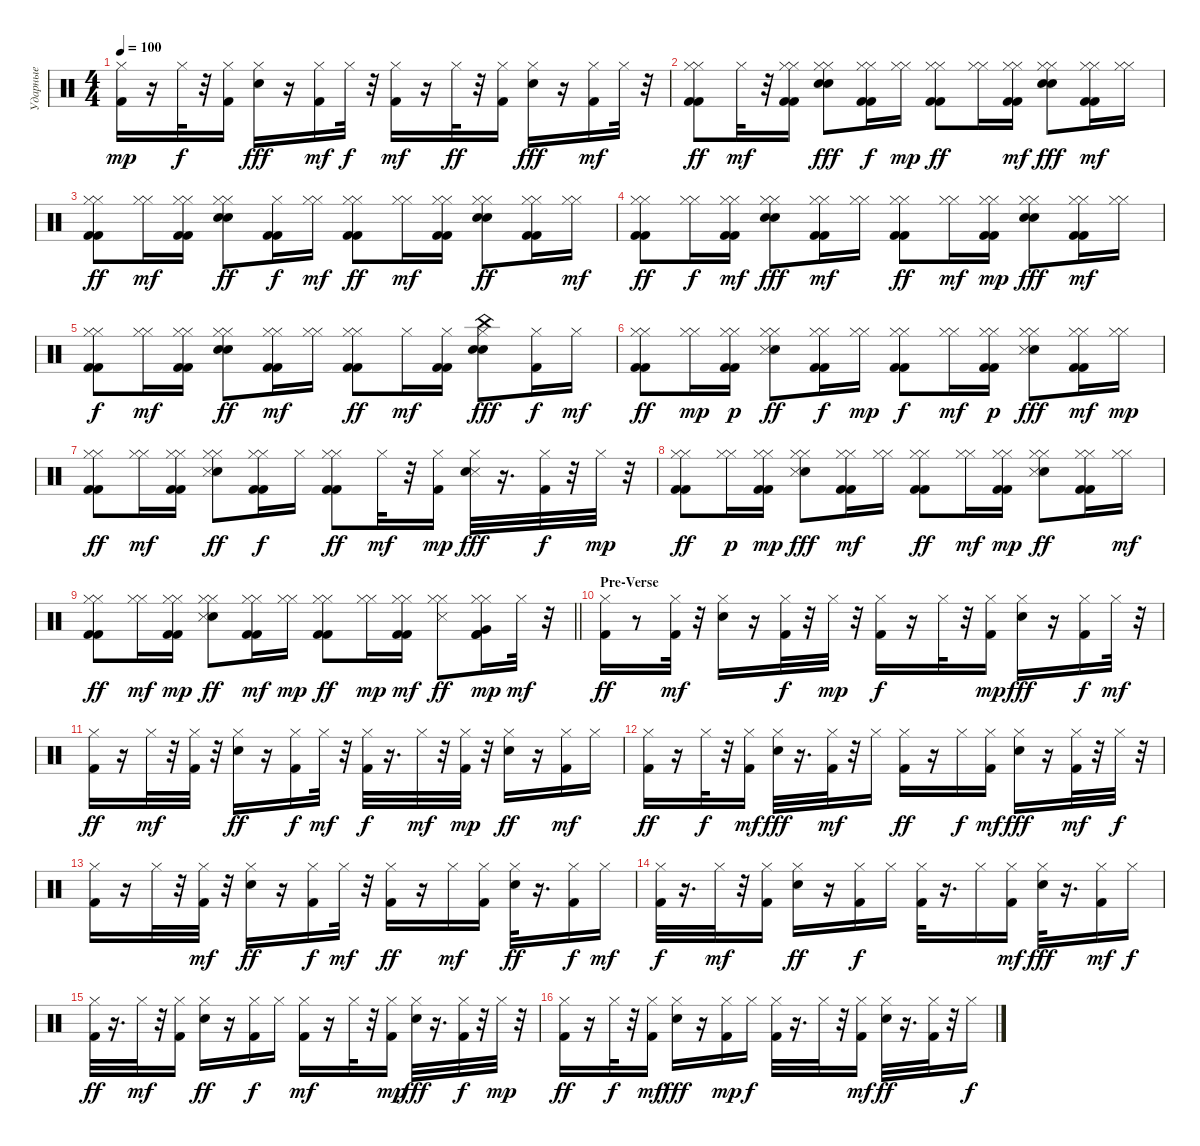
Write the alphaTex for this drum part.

\track ("Ударные" "Ударные") {instrument percussion}
\staff {score}
\articulation defaults
\ts (4 4)
\tempo 100
\clef neutral
\ks c
("Kick (hit) 2" "Hi-Hat (closed)").16{dy mp} r.16 "Hi-Hat (closed)".32{dy f} r.32 ("Kick (hit) 2" "Hi-Hat (closed)").16 ("Hi-Hat (closed)" "Snare (hit) 2").16{dy fff} r.16 ("Kick (hit) 2" "Hi-Hat (closed)").16{dy mf} "Hi-Hat (closed)".32{dy f} r.32 ("Hi-Hat (closed)" "Kick (hit) 2").16{dy mf} r.16 "Hi-Hat (closed)".32{dy ff} r.32 ("Kick (hit) 2" "Hi-Hat (closed)").16 ("Hi-Hat (closed)" "Snare (hit) 2").16{dy fff} r.16 ("Kick (hit) 2" "Hi-Hat (closed)").16{dy mf} "Hi-Hat (closed)".32 r.32 |
("Kick (hit) 2" "Hi-Hat (closed)" "Hi-Hat (closed)" "Kick (hit) 2").8{dy ff} "Hi-Hat (closed)".32{dy mf} r.32 ("Hi-Hat (closed)" "Kick (hit) 2" "Kick (hit) 2" "Hi-Hat (closed)").16 ("Snare (hit) 2" "Hi-Hat (closed)" "Hi-Hat (closed)" "Snare (hit) 2").8{dy fff} ("Kick (hit) 2" "Hi-Hat (closed)" "Kick (hit) 2" "Hi-Hat (closed)").16{dy f} ("Hi-Hat (closed)" "Hi-Hat (closed)").16{dy mp} ("Kick (hit) 2" "Hi-Hat (closed)" "Kick (hit) 2" "Hi-Hat (closed)").8{dy ff} ("Hi-Hat (closed)" "Hi-Hat (closed)").16 ("Kick (hit) 2" "Hi-Hat (closed)" "Hi-Hat (closed)" "Kick (hit) 2").16{dy mf} ("Hi-Hat (closed)" "Hi-Hat (closed)" "Snare (hit) 2" "Snare (hit) 2").8{dy fff} ("Kick (hit) 2" "Hi-Hat (closed)" "Kick (hit) 2" "Hi-Hat (closed)").16{dy mf} ("Hi-Hat (closed)" "Hi-Hat (closed)").16 |
("Kick (hit) 2" "Hi-Hat (closed)" "Kick (hit) 2" "Hi-Hat (closed)").8{dy ff} ("Hi-Hat (closed)" "Hi-Hat (closed)").16{dy mf} ("Kick (hit) 2" "Hi-Hat (closed)" "Hi-Hat (closed)" "Kick (hit) 2").16 ("Hi-Hat (closed)" "Snare (hit) 2" "Snare (hit) 2" "Hi-Hat (closed)").8{dy ff} ("Kick (hit) 2" "Hi-Hat (closed)" "Kick (hit) 2").16{dy f} ("Hi-Hat (closed)" "Hi-Hat (closed)").16{dy mf} ("Kick (hit) 2" "Hi-Hat (closed)" "Kick (hit) 2" "Hi-Hat (closed)").8{dy ff} ("Hi-Hat (closed)" "Hi-Hat (closed)").16{dy mf} ("Kick (hit) 2" "Kick (hit) 2" "Hi-Hat (closed)" "Hi-Hat (closed)").16 ("Hi-Hat (closed)" "Hi-Hat (closed)" "Snare (hit) 2" "Snare (hit) 2").8{dy ff} ("Hi-Hat (closed)" "Kick (hit) 2" "Kick (hit) 2" "Hi-Hat (closed)").16 ("Hi-Hat (closed)" "Hi-Hat (closed)").16{dy mf} |
("Hi-Hat (closed)" "Kick (hit) 2" "Kick (hit) 2" "Hi-Hat (closed)").8{dy ff} ("Hi-Hat (closed)" "Hi-Hat (closed)").16{dy f} ("Kick (hit) 2" "Hi-Hat (closed)" "Hi-Hat (closed)" "Kick (hit) 2").16{dy mf} ("Hi-Hat (closed)" "Hi-Hat (closed)" "Snare (hit) 2" "Snare (hit) 2").8{dy fff} ("Kick (hit) 2" "Hi-Hat (closed)" "Kick (hit) 2" "Hi-Hat (closed)").16{dy mf} ("Hi-Hat (closed)" "Hi-Hat (closed)").16 ("Hi-Hat (closed)" "Kick (hit) 2" "Kick (hit) 2" "Hi-Hat (closed)").8{dy ff} ("Hi-Hat (closed)" "Hi-Hat (closed)").16{dy mf} ("Kick (hit) 2" "Hi-Hat (closed)" "Kick (hit) 2" "Hi-Hat (closed)").16{dy mp} ("Hi-Hat (closed)" "Hi-Hat (closed)" "Snare (hit) 2" "Snare (hit) 2").8{dy fff} ("Kick (hit) 2" "Hi-Hat (closed)" "Kick (hit) 2" "Hi-Hat (closed)").16{dy mf} ("Hi-Hat (closed)" "Hi-Hat (closed)").16 |
("Hi-Hat (closed)" "Kick (hit) 2" "Kick (hit) 2" "Hi-Hat (closed)").8{dy f} ("Hi-Hat (closed)" "Hi-Hat (closed)").16{dy mf} ("Kick (hit) 2" "Hi-Hat (closed)" "Kick (hit) 2" "Hi-Hat (closed)").16 ("Hi-Hat (closed)" "Snare (hit) 2" "Hi-Hat (closed)" "Snare (hit) 2").8{dy ff} ("Kick (hit) 2" "Hi-Hat (closed)" "Kick (hit) 2" "Hi-Hat (closed)").16{dy mf} ("Hi-Hat (closed)" "Hi-Hat (closed)").16 ("Kick (hit) 2" "Hi-Hat (closed)" "Hi-Hat (closed)" "Kick (hit) 2").8{dy ff} "Hi-Hat (closed)".16{dy mf} ("Kick (hit) 2" "Hi-Hat (closed)" "Kick (hit) 2").16 ("Hi-Hat (closed)" "China (hit)" "Snare (hit) 2" "Snare (hit) 2").8{dy fff} ("Kick (hit) 2" "Hi-Hat (closed)").16{dy f} "Hi-Hat (closed)".16{dy mf} |
("Kick (hit) 2" "Hi-Hat (closed)" "Kick (hit) 2" "Hi-Hat (closed)").8{dy ff} ("Hi-Hat (closed)" "Hi-Hat (closed)").16{dy mp} ("Kick (hit) 2" "Hi-Hat (closed)" "Kick (hit) 2" "Hi-Hat (closed)").16{dy p} ("Hi-Hat (closed)" "Hi-Hat (closed)" "Snare (hit) 2" "Snare (side stick) 3").8{dy ff} ("Kick (hit) 2" "Hi-Hat (closed)" "Hi-Hat (closed)" "Kick (hit) 2").16{dy f} ("Hi-Hat (closed)" "Hi-Hat (closed)").16{dy mp} ("Kick (hit) 2" "Hi-Hat (closed)" "Hi-Hat (closed)" "Kick (hit) 2").8{dy f} ("Hi-Hat (closed)" "Hi-Hat (closed)").16{dy mf} ("Kick (hit) 2" "Hi-Hat (closed)" "Kick (hit) 2" "Hi-Hat (closed)").16{dy p} ("Hi-Hat (closed)" "Hi-Hat (closed)" "Snare (hit) 2" "Snare (side stick) 3").8{dy fff} ("Kick (hit) 2" "Hi-Hat (closed)" "Kick (hit) 2" "Hi-Hat (closed)").16{dy mf} ("Hi-Hat (closed)" "Hi-Hat (closed)").16{dy mp} |
("Kick (hit) 2" "Hi-Hat (closed)" "Kick (hit) 2" "Hi-Hat (closed)").8{dy ff} ("Hi-Hat (closed)" "Hi-Hat (closed)").16{dy mf} ("Kick (hit) 2" "Kick (hit) 2" "Hi-Hat (closed)" "Hi-Hat (closed)").16 ("Hi-Hat (closed)" "Hi-Hat (closed)" "Snare (hit) 2" "Snare (side stick) 3").8{dy ff} ("Kick (hit) 2" "Hi-Hat (closed)" "Hi-Hat (closed)" "Kick (hit) 2").16{dy f} "Hi-Hat (closed)".16 ("Hi-Hat (closed)" "Kick (hit) 2" "Kick (hit) 2" "Hi-Hat (closed)").8{dy ff} "Hi-Hat (closed)".32{dy mf} r.32 ("Kick (hit) 2" "Hi-Hat (closed)").16{dy mp} ("Snare (side stick) 3" "Hi-Hat (closed)" "Snare (hit) 2").32{dy fff} r.16{d} ("Kick (hit) 2" "Hi-Hat (closed)").32{dy f} r.32 "Hi-Hat (closed)".32{dy mp} r.32 |
("Kick (hit) 2" "Hi-Hat (closed)" "Kick (hit) 2" "Hi-Hat (closed)").8{dy ff} ("Hi-Hat (closed)" "Hi-Hat (closed)").16{dy p} ("Hi-Hat (closed)" "Kick (hit) 2" "Kick (hit) 2" "Hi-Hat (closed)").16{dy mp} ("Hi-Hat (closed)" "Hi-Hat (closed)" "Snare (hit) 2" "Snare (side stick) 3").8{dy fff} ("Kick (hit) 2" "Hi-Hat (closed)" "Kick (hit) 2" "Hi-Hat (closed)").16{dy mf} ("Hi-Hat (closed)" "Hi-Hat (closed)").16 ("Kick (hit) 2" "Kick (hit) 2" "Hi-Hat (closed)" "Hi-Hat (closed)").8{dy ff} ("Hi-Hat (closed)" "Hi-Hat (closed)").16{dy mf} ("Kick (hit) 2" "Hi-Hat (closed)" "Hi-Hat (closed)" "Kick (hit) 2").16{dy mp} ("Hi-Hat (closed)" "Hi-Hat (closed)" "Snare (hit) 2" "Snare (side stick) 3").8{dy ff} ("Kick (hit) 2" "Hi-Hat (closed)" "Kick (hit) 2" "Hi-Hat (closed)").16 ("Hi-Hat (closed)" "Hi-Hat (closed)").16{dy mf} |
\barLineRight lightlight
("Hi-Hat (closed)" "Kick (hit) 2" "Kick (hit) 2" "Hi-Hat (closed)").8{dy ff} ("Hi-Hat (closed)" "Hi-Hat (closed)").16{dy mf} ("Kick (hit) 2" "Hi-Hat (closed)" "Kick (hit) 2" "Hi-Hat (closed)").16{dy mp} ("Hi-Hat (closed)" "Snare (hit) 2" "Hi-Hat (closed)" "Snare (side stick) 3").8{dy ff} ("Hi-Hat (closed)" "Kick (hit) 2" "Kick (hit) 2" "Hi-Hat (closed)").16{dy mf} ("Hi-Hat (closed)" "Hi-Hat (closed)").16{dy mp} ("Hi-Hat (closed)" "Kick (hit) 2" "Kick (hit) 2" "Hi-Hat (closed)").8{dy ff} ("Hi-Hat (closed)" "Hi-Hat (closed)").16{dy mp} ("Hi-Hat (closed)" "Kick (hit) 2" "Kick (hit) 2" "Hi-Hat (closed)").16{dy mf} ("Hi-Hat (closed)" "Hi-Hat (closed)" "Snare (side stick) 3").8{dy ff} ("Kick (hit) 2" "Hi-Hat (closed)" "Hi-Hat (closed)" "Kick (hit) 2" "Very Low Tom (hit)").16{dy mp} "Hi-Hat (closed)".32{dy mf} r.32 |
\section ("" "Pre-Verse ")
("Kick (hit) 2" "Hi-Hat (closed)").16{dy ff} r.8 ("Hi-Hat (closed)" "Kick (hit) 2").32{dy mf} r.32 ("Snare (hit) 2" "Hi-Hat (closed)").16 r.16 ("Kick (hit) 2" "Hi-Hat (closed)").32{dy f} r.32 "Hi-Hat (closed)".32{dy mp} r.32 ("Kick (hit) 2" "Hi-Hat (closed)").16{dy f} r.16 "Hi-Hat (closed)".32 r.32 ("Kick (hit) 2" "Hi-Hat (closed)").16{dy mp} ("Hi-Hat (closed)" "Snare (hit) 2").16{dy fff} r.16 ("Kick (hit) 2" "Hi-Hat (closed)").16{dy f} "Hi-Hat (closed)".32{dy mf} r.32 |
("Kick (hit) 2" "Hi-Hat (closed)").16{dy ff} r.16 "Hi-Hat (closed)".32{dy mf} r.32 ("Kick (hit) 2" "Hi-Hat (closed)").32 r.32 ("Hi-Hat (closed)" "Snare (hit) 2").16{dy ff} r.16 ("Kick (hit) 2" "Hi-Hat (closed)").16{dy f} "Hi-Hat (closed)".32{dy mf} r.32 ("Kick (hit) 2" "Hi-Hat (closed)").32{dy f} r.16{d} "Hi-Hat (closed)".32{dy mf} r.32 ("Kick (hit) 2" "Hi-Hat (closed)").32{dy mp} r.32 ("Hi-Hat (closed)" "Snare (hit) 2").16{dy ff} r.16 ("Hi-Hat (closed)" "Kick (hit) 2").16{dy mf} "Hi-Hat (closed)".16 |
("Hi-Hat (closed)" "Kick (hit) 2").16{dy ff} r.16 "Hi-Hat (closed)".32{dy f} r.32 ("Kick (hit) 2" "Hi-Hat (closed)").16{dy mf} ("Hi-Hat (closed)" "Snare (hit) 2").32{dy fff} r.16{d} ("Kick (hit) 2" "Hi-Hat (closed)").32{dy mf} r.32 "Hi-Hat (closed)".16 ("Hi-Hat (closed)" "Kick (hit) 2").16{dy ff} r.16 "Hi-Hat (closed)".16{dy f} ("Kick (hit) 2" "Hi-Hat (closed)").16{dy mf} ("Hi-Hat (closed)" "Snare (hit) 2").16{dy fff} r.16 ("Kick (hit) 2" "Hi-Hat (closed)").32{dy mf} r.32 "Hi-Hat (closed)".32{dy f} r.32 |
("Hi-Hat (closed)" "Kick (hit) 2").16 r.16 "Hi-Hat (closed)".32 r.32 ("Kick (hit) 2" "Hi-Hat (closed)").32{dy mf} r.32 ("Hi-Hat (closed)" "Snare (hit) 2").16{dy ff} r.16 ("Kick (hit) 2" "Hi-Hat (closed)").16{dy f} "Hi-Hat (closed)".32{dy mf} r.32 ("Kick (hit) 2" "Hi-Hat (closed)").16{dy ff} r.16 "Hi-Hat (closed)".16{dy mf} ("Kick (hit) 2" "Hi-Hat (closed)").16 ("Hi-Hat (closed)" "Snare (hit) 2").32{dy ff} r.16{d} ("Kick (hit) 2" "Hi-Hat (closed)").16{dy f} "Hi-Hat (closed)".16{dy mf} |
("Kick (hit) 2" "Hi-Hat (closed)").32{dy f} r.16{d} "Hi-Hat (closed)".32{dy mf} r.32 ("Kick (hit) 2" "Hi-Hat (closed)").16 ("Hi-Hat (closed)" "Snare (hit) 2").16{dy ff} r.16 ("Kick (hit) 2" "Hi-Hat (closed)").16{dy f} "Hi-Hat (closed)".16 ("Kick (hit) 2" "Hi-Hat (closed)").32 r.16{d} "Hi-Hat (closed)".16 ("Kick (hit) 2" "Hi-Hat (closed)").16{dy mf} ("Hi-Hat (closed)" "Snare (hit) 2").32{dy fff} r.16{d} ("Kick (hit) 2" "Hi-Hat (closed)").16{dy mf} "Hi-Hat (closed)".16{dy f} |
("Kick (hit) 2" "Hi-Hat (closed)").32{dy ff} r.16{d} "Hi-Hat (closed)".32{dy mf} r.32 ("Kick (hit) 2" "Hi-Hat (closed)").16 ("Hi-Hat (closed)" "Snare (hit) 2").16{dy ff} r.16 ("Kick (hit) 2" "Hi-Hat (closed)").16{dy f} "Hi-Hat (closed)".16 ("Hi-Hat (closed)" "Kick (hit) 2").16{dy mf} r.16 "Hi-Hat (closed)".32 r.32 ("Kick (hit) 2" "Hi-Hat (closed)").16{dy mp} ("Hi-Hat (closed)" "Snare (hit) 2").32{dy fff} r.16{d} ("Kick (hit) 2" "Hi-Hat (closed)").32{dy f} r.32 "Hi-Hat (closed)".32{dy mp} r.32 |
("Kick (hit) 2" "Hi-Hat (closed)").16{dy ff} r.16 "Hi-Hat (closed)".32{dy f} r.32 ("Hi-Hat (closed)" "Kick (hit) 2").16{dy mf} ("Hi-Hat (closed)" "Snare (hit) 2").16{dy fff} r.16 ("Kick (hit) 2" "Hi-Hat (closed)").16{dy mp} "Hi-Hat (closed)".16{dy f} ("Kick (hit) 2" "Hi-Hat (closed)").32 r.16{d} "Hi-Hat (closed)".32 r.32 ("Kick (hit) 2" "Hi-Hat (closed)").16{dy mf} ("Hi-Hat (closed)" "Snare (hit) 2").32{dy ff} r.16{d} ("Kick (hit) 2" "Hi-Hat (closed)").32 r.32 "Hi-Hat (closed)".16{dy f}
